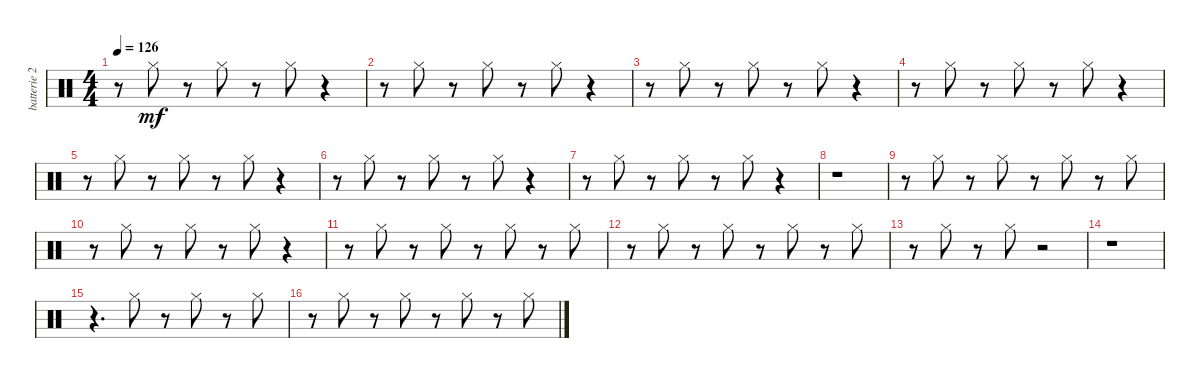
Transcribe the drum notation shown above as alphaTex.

\track ("batterie 2" "batterie 2") {instrument percussion}
\staff {score}
\articulation defaults
\ts (4 4)
\tempo 126
\clef neutral
\ks c
r.8{dy mf} "Hi-Hat (closed)".8 r.8 "Hi-Hat (closed)".8 r.8 "Hi-Hat (closed)".8 r.4 |
r.8 "Hi-Hat (closed)".8 r.8 "Hi-Hat (closed)".8 r.8 "Hi-Hat (closed)".8 r.4 |
r.8 "Hi-Hat (closed)".8 r.8 "Hi-Hat (closed)".8 r.8 "Hi-Hat (closed)".8 r.4 |
r.8 "Hi-Hat (closed)".8 r.8 "Hi-Hat (closed)".8 r.8 "Hi-Hat (closed)".8 r.4 |
r.8 "Hi-Hat (closed)".8 r.8 "Hi-Hat (closed)".8 r.8 "Hi-Hat (closed)".8 r.4 |
r.8 "Hi-Hat (closed)".8 r.8 "Hi-Hat (closed)".8 r.8 "Hi-Hat (closed)".8 r.4 |
r.8 "Hi-Hat (closed)".8 r.8 "Hi-Hat (closed)".8 r.8 "Hi-Hat (closed)".8 r.4 |
r.1 |
r.8 "Hi-Hat (closed)".8 r.8 "Hi-Hat (closed)".8 r.8 "Hi-Hat (closed)".8 r.8 "Hi-Hat (closed)".8 |
r.8 "Hi-Hat (closed)".8 r.8 "Hi-Hat (closed)".8 r.8 "Hi-Hat (closed)".8 r.4 |
r.8 "Hi-Hat (closed)".8 r.8 "Hi-Hat (closed)".8 r.8 "Hi-Hat (closed)".8 r.8 "Hi-Hat (closed)".8 |
r.8 "Hi-Hat (closed)".8 r.8 "Hi-Hat (closed)".8 r.8 "Hi-Hat (closed)".8 r.8 "Hi-Hat (closed)".8 |
r.8 "Hi-Hat (closed)".8 r.8 "Hi-Hat (closed)".8 r.2 |
r.1 |
r.4{d} "Hi-Hat (closed)".8 r.8 "Hi-Hat (closed)".8 r.8 "Hi-Hat (closed)".8 |
r.8 "Hi-Hat (closed)".8 r.8 "Hi-Hat (closed)".8 r.8 "Hi-Hat (closed)".8 r.8 "Hi-Hat (closed)".8
